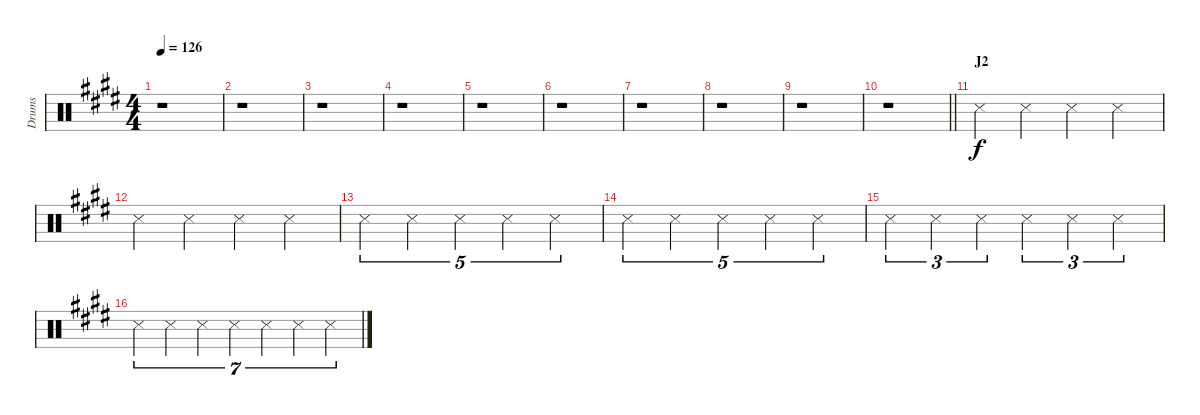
\track ("Drums" "Drums") {instrument percussion}
\staff {score}
\articulation defaults
\ts (4 4)
\tempo 126
\clef neutral
\ks c#minor
r.1{dy f} |
r.1 |
r.1 |
r.1 |
r.1 |
r.1 |
r.1 |
r.1 |
r.1 |
\barLineRight lightlight
r.1 |
\section ("" "J2")
"Metronome (hit)".4 "Metronome (hit)".4 "Metronome (hit)".4 "Metronome (hit)".4 |
"Metronome (hit)".4 "Metronome (hit)".4 "Metronome (hit)".4 "Metronome (hit)".4 |
"Metronome (hit)".4{tu (5 4)} "Metronome (hit)".4{tu (5 4)} "Metronome (hit)".4{tu (5 4)} "Metronome (hit)".4{tu (5 4)} "Metronome (hit)".4{tu (5 4)} |
"Metronome (hit)".4{tu (5 4)} "Metronome (hit)".4{tu (5 4)} "Metronome (hit)".4{tu (5 4)} "Metronome (hit)".4{tu (5 4)} "Metronome (hit)".4{tu (5 4)} |
"Metronome (hit)".4{tu (3 2)} "Metronome (hit)".4{tu (3 2)} "Metronome (hit)".4{tu (3 2)} "Metronome (hit)".4{tu (3 2)} "Metronome (hit)".4{tu (3 2)} "Metronome (hit)".4{tu (3 2)} |
"Metronome (hit)".4{tu (7 4)} "Metronome (hit)".4{tu (7 4)} "Metronome (hit)".4{tu (7 4)} "Metronome (hit)".4{tu (7 4)} "Metronome (hit)".4{tu (7 4)} "Metronome (hit)".4{tu (7 4)} "Metronome (hit)".4{tu (7 4)}
